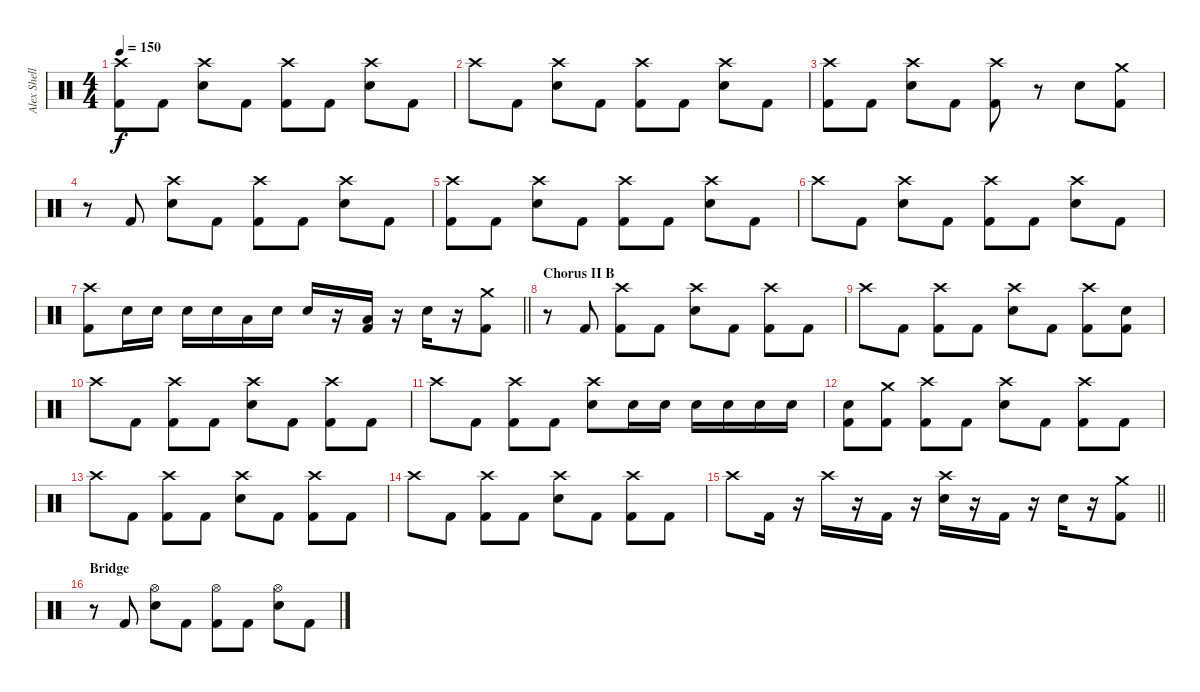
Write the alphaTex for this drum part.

\track ("Alex Shellnutt" "Alex Shell") {instrument percussion}
\staff {score}
\articulation defaults
\ts (4 4)
\tempo 150
\clef neutral
\ks c
("Crash high (hit)" "Kick (hit) 2").8{dy f} "Kick (hit) 2".8 ("Crash high (hit)" "Snare (hit) 2").8 "Kick (hit) 2".8 ("Crash high (hit)" "Kick (hit) 2").8 "Kick (hit) 2".8 ("Crash high (hit)" "Snare (hit) 2").8 "Kick (hit) 2".8 |
"Crash high (hit)".8 "Kick (hit) 2".8 ("Crash high (hit)" "Snare (hit) 2").8 "Kick (hit) 2".8 ("Crash high (hit)" "Kick (hit) 2").8 "Kick (hit) 2".8 ("Crash high (hit)" "Snare (hit) 2").8 "Kick (hit) 2".8 |
("Crash high (hit)" "Kick (hit) 2").8 "Kick (hit) 2".8 ("Crash high (hit)" "Snare (hit) 2").8 "Kick (hit) 2".8 ("Crash high (hit)" "Kick (hit) 2").8 r.8 "Snare (hit) 2".8 ("Crash medium (hit)" "Kick (hit) 2").8 |
r.8 "Kick (hit) 2".8 ("Crash high (hit)" "Snare (hit) 2").8 "Kick (hit) 2".8 ("Crash high (hit)" "Kick (hit) 2").8 "Kick (hit) 2".8 ("Crash high (hit)" "Snare (hit) 2").8 "Kick (hit) 2".8 |
("Crash high (hit)" "Kick (hit) 2").8 "Kick (hit) 2".8 ("Crash high (hit)" "Snare (hit) 2").8 "Kick (hit) 2".8 ("Crash high (hit)" "Kick (hit) 2").8 "Kick (hit) 2".8 ("Crash high (hit)" "Snare (hit) 2").8 "Kick (hit) 2".8 |
"Crash high (hit)".8 "Kick (hit) 2".8 ("Crash high (hit)" "Snare (hit) 2").8 "Kick (hit) 2".8 ("Crash high (hit)" "Kick (hit) 2").8 "Kick (hit) 2".8 ("Crash high (hit)" "Snare (hit) 2").8 "Kick (hit) 2".8 |
\barLineRight lightlight
("Crash high (hit)" "Kick (hit) 2").8 "Snare (hit) 2".16 "Snare (hit) 2".16 "Snare (hit) 2".16 "Snare (hit) 2".16 "Low Floor Tom (hit)".16 "Snare (hit) 2".16 "Snare (hit) 2".16 r.16 ("Low Floor Tom (hit)" "Kick (hit) 2").16 r.16 "Snare (hit) 2".16 r.16 ("Crash medium (hit)" "Kick (hit) 2").8 |
\section ("" "Chorus II B")
r.8 "Kick (hit) 2".8 ("Crash high (hit)" "Kick (hit) 2").8 "Kick (hit) 2".8 ("Crash high (hit)" "Snare (hit) 2").8 "Kick (hit) 2".8 ("Crash high (hit)" "Kick (hit) 2").8 "Kick (hit) 2".8 |
"Crash high (hit)".8 "Kick (hit) 2".8 ("Crash high (hit)" "Kick (hit) 2").8 "Kick (hit) 2".8 ("Crash high (hit)" "Snare (hit) 2").8 "Kick (hit) 2".8 ("Crash high (hit)" "Kick (hit) 2").8 ("Snare (hit) 2" "Kick (hit) 2").8 |
"Crash high (hit)".8 "Kick (hit) 2".8 ("Crash high (hit)" "Kick (hit) 2").8 "Kick (hit) 2".8 ("Crash high (hit)" "Snare (hit) 2").8 "Kick (hit) 2".8 ("Crash high (hit)" "Kick (hit) 2").8 "Kick (hit) 2".8 |
"Crash high (hit)".8 "Kick (hit) 2".8 ("Crash high (hit)" "Kick (hit) 2").8 "Kick (hit) 2".8 ("Crash high (hit)" "Snare (hit) 2").8 "Snare (hit) 2".16 "Snare (hit) 2".16 "Snare (hit) 2".16 "Snare (hit) 2".16 "Snare (hit) 2".16 "Snare (hit) 2".16 |
("Snare (hit) 2" "Kick (hit) 2").8 ("Crash medium (hit)" "Kick (hit) 2").8 ("Crash high (hit)" "Kick (hit) 2").8 "Kick (hit) 2".8 ("Crash high (hit)" "Snare (hit) 2").8 "Kick (hit) 2".8 ("Crash high (hit)" "Kick (hit) 2").8 "Kick (hit) 2".8 |
"Crash high (hit)".8 "Kick (hit) 2".8 ("Crash high (hit)" "Kick (hit) 2").8 "Kick (hit) 2".8 ("Crash high (hit)" "Snare (hit) 2").8 "Kick (hit) 2".8 ("Crash high (hit)" "Kick (hit) 2").8 "Kick (hit) 2".8 |
"Crash high (hit)".8 "Kick (hit) 2".8 ("Crash high (hit)" "Kick (hit) 2").8 "Kick (hit) 2".8 ("Crash high (hit)" "Snare (hit) 2").8 "Kick (hit) 2".8 ("Crash high (hit)" "Kick (hit) 2").8 "Kick (hit) 2".8 |
\barLineRight lightlight "Crash high (hit)".8 "Kick (hit) 2".16
r.16 "Crash high (hit)".16 r.16 "Kick (hit) 2".16 r.16 ("Crash high (hit)" "Snare (hit) 2").16 r.16 "Kick (hit) 2".16 r.16 "Snare (hit) 2".16 r.16 ("Crash medium (hit)" "Kick (hit) 2").8 |
\section ("" "Bridge")
r.8 "Kick (hit) 2".8 ("Hi-Hat (open)" "Snare (hit) 2").8 "Kick (hit) 2".8 ("Hi-Hat (open)" "Kick (hit) 2").8 "Kick (hit) 2".8 ("Hi-Hat (open)" "Snare (hit) 2").8 "Kick (hit) 2".8
